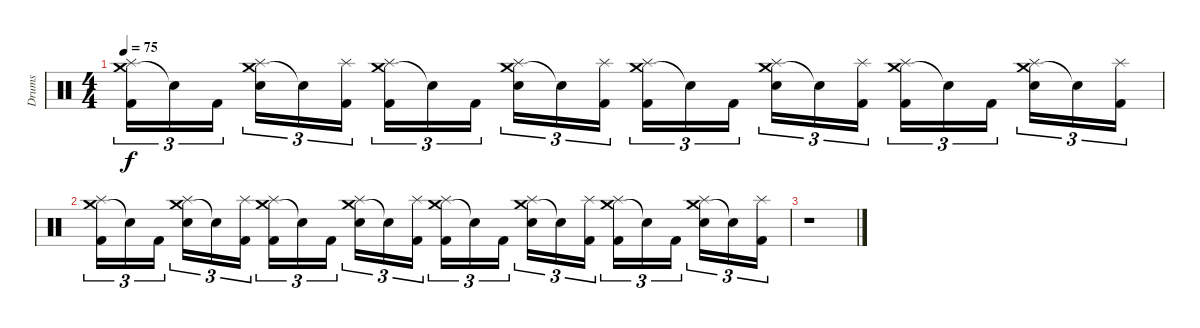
\track ("Drums" "Drums") {instrument percussion}
\staff {score}
\articulation defaults
\ts (4 4)
\tempo 75
\clef neutral
\ks c
("Crash medium (hit)" "Splash (hit)" "Kick (hit) 2").16{tu (3 2) dy f} "Snare (hit)"{t}.16{tu (3 2)} "Kick (hit) 2".16{tu (3 2) beam splitsecondary} ("Crash medium (hit)" "Splash (hit)" "Snare (hit) 2").16{tu (3 2)} "Snare (hit)"{t}.16{tu (3 2)} ("Splash (hit)" "Kick (hit) 2").16{tu (3 2)} ("Crash medium (hit)" "Splash (hit)" "Kick (hit) 2").16{tu (3 2)} "Snare (hit)"{t}.16{tu (3 2)} "Kick (hit) 2".16{tu (3 2) beam splitsecondary} ("Crash medium (hit)" "Splash (hit)" "Snare (hit) 2").16{tu (3 2)} "Snare (hit)"{t}.16{tu (3 2)} ("Splash (hit)" "Kick (hit) 2").16{tu (3 2)} ("Crash medium (hit)" "Splash (hit)" "Kick (hit) 2").16{tu (3 2)} "Snare (hit)"{t}.16{tu (3 2)} "Kick (hit) 2".16{tu (3 2) beam splitsecondary} ("Crash medium (hit)" "Splash (hit)" "Snare (hit) 2").16{tu (3 2)} "Snare (hit)"{t}.16{tu (3 2)} ("Splash (hit)" "Kick (hit) 2").16{tu (3 2)} ("Crash medium (hit)" "Splash (hit)" "Kick (hit) 2").16{tu (3 2)} "Snare (hit)"{t}.16{tu (3 2)} "Kick (hit) 2".16{tu (3 2) beam splitsecondary} ("Crash medium (hit)" "Splash (hit)" "Snare (hit) 2").16{tu (3 2)} "Snare (hit)"{t}.16{tu (3 2)} ("Splash (hit)" "Kick (hit) 2").16{tu (3 2)} |
("Crash medium (hit)" "Splash (hit)" "Kick (hit) 2").16{tu (3 2)} "Snare (hit)"{t}.16{tu (3 2)} "Kick (hit) 2".16{tu (3 2) beam splitsecondary} ("Crash medium (hit)" "Splash (hit)" "Snare (hit) 2").16{tu (3 2)} "Snare (hit)"{t}.16{tu (3 2)} ("Splash (hit)" "Kick (hit) 2").16{tu (3 2)} ("Crash medium (hit)" "Splash (hit)" "Kick (hit) 2").16{tu (3 2)} "Snare (hit)"{t}.16{tu (3 2)} "Kick (hit) 2".16{tu (3 2) beam splitsecondary} ("Crash medium (hit)" "Splash (hit)" "Snare (hit) 2").16{tu (3 2)} "Snare (hit)"{t}.16{tu (3 2)} ("Splash (hit)" "Kick (hit) 2").16{tu (3 2)} ("Crash medium (hit)" "Splash (hit)" "Kick (hit) 2").16{tu (3 2)} "Snare (hit)"{t}.16{tu (3 2)} "Kick (hit) 2".16{tu (3 2) beam splitsecondary} ("Crash medium (hit)" "Splash (hit)" "Snare (hit) 2").16{tu (3 2)} "Snare (hit)"{t}.16{tu (3 2)} ("Splash (hit)" "Kick (hit) 2").16{tu (3 2)} ("Crash medium (hit)" "Splash (hit)" "Kick (hit) 2").16{tu (3 2)} "Snare (hit)"{t}.16{tu (3 2)} "Kick (hit) 2".16{tu (3 2) beam splitsecondary} ("Crash medium (hit)" "Splash (hit)" "Snare (hit) 2").16{tu (3 2)} "Snare (hit)"{t}.16{tu (3 2)} ("Splash (hit)" "Kick (hit) 2").16{tu (3 2)} |
r.1
